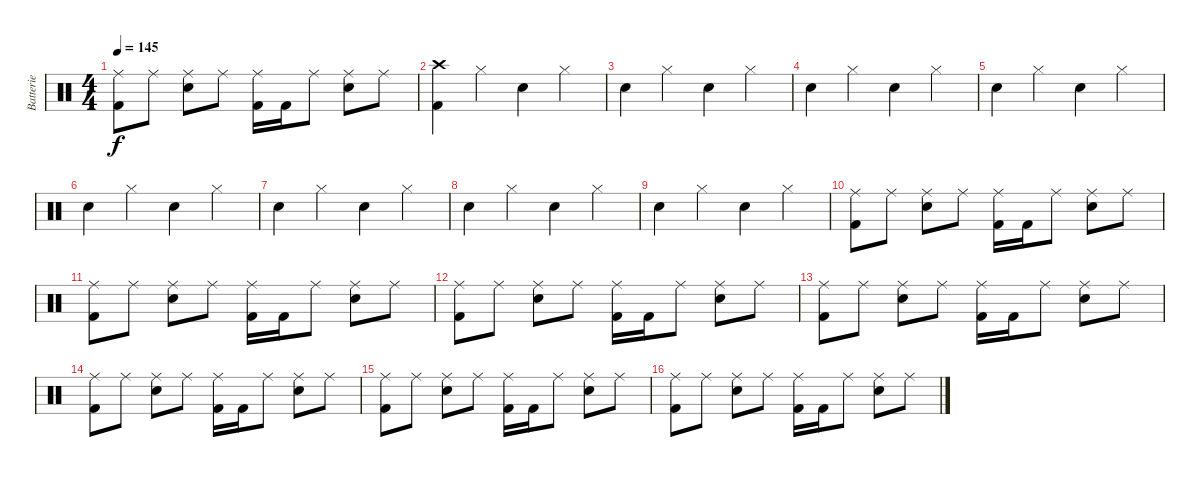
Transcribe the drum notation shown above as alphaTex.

\track ("Batterie" "Batterie") {instrument percussion}
\staff {score}
\articulation defaults
\ts (4 4)
\tempo 145
\clef neutral
\ks c
("Ride (middle)" "Kick (hit) 2").8{dy f} "Ride (middle)".8 ("Ride (middle)" "Snare (hit) 2").8 "Ride (middle)".8 ("Ride (middle)" "Kick (hit) 2").16 "Kick (hit) 2".16 "Ride (middle)".8 ("Ride (middle)" "Snare (hit) 2").8 "Ride (middle)".8 |
\section ("" "")
("Crash high (hit)" "Kick (hit) 2").4 "Hi-Hat (closed)".4 "Snare (hit) 2".4 "Hi-Hat (closed)".4 |
"Snare (hit) 2".4 "Hi-Hat (closed)".4 "Snare (hit) 2".4 "Hi-Hat (closed)".4 |
"Snare (hit) 2".4 "Hi-Hat (closed)".4 "Snare (hit) 2".4 "Hi-Hat (closed)".4 |
"Snare (hit) 2".4 "Hi-Hat (closed)".4 "Snare (hit) 2".4 "Hi-Hat (closed)".4 |
"Snare (hit) 2".4 "Hi-Hat (closed)".4 "Snare (hit) 2".4 "Hi-Hat (closed)".4 |
"Snare (hit) 2".4 "Hi-Hat (closed)".4 "Snare (hit) 2".4 "Hi-Hat (closed)".4 |
"Snare (hit) 2".4 "Hi-Hat (closed)".4 "Snare (hit) 2".4 "Hi-Hat (closed)".4 |
"Snare (hit) 2".4 "Hi-Hat (closed)".4 "Snare (hit) 2".4 "Hi-Hat (closed)".4 |
\section ("" "")
("Ride (middle)" "Kick (hit) 2").8 "Ride (middle)".8 ("Ride (middle)" "Snare (hit) 2").8 "Ride (middle)".8 ("Ride (middle)" "Kick (hit) 2").16 "Kick (hit) 2".16 "Ride (middle)".8 ("Ride (middle)" "Snare (hit) 2").8 "Ride (middle)".8 |
("Ride (middle)" "Kick (hit) 2").8 "Ride (middle)".8 ("Ride (middle)" "Snare (hit) 2").8 "Ride (middle)".8 ("Ride (middle)" "Kick (hit) 2").16 "Kick (hit) 2".16 "Ride (middle)".8 ("Ride (middle)" "Snare (hit) 2").8 "Ride (middle)".8 |
("Ride (middle)" "Kick (hit) 2").8 "Ride (middle)".8 ("Ride (middle)" "Snare (hit) 2").8 "Ride (middle)".8 ("Ride (middle)" "Kick (hit) 2").16 "Kick (hit) 2".16 "Ride (middle)".8 ("Ride (middle)" "Snare (hit) 2").8 "Ride (middle)".8 |
("Ride (middle)" "Kick (hit) 2").8 "Ride (middle)".8 ("Ride (middle)" "Snare (hit) 2").8 "Ride (middle)".8 ("Ride (middle)" "Kick (hit) 2").16 "Kick (hit) 2".16 "Ride (middle)".8 ("Ride (middle)" "Snare (hit) 2").8 "Ride (middle)".8 |
("Ride (middle)" "Kick (hit) 2").8 "Ride (middle)".8 ("Ride (middle)" "Snare (hit) 2").8 "Ride (middle)".8 ("Ride (middle)" "Kick (hit) 2").16 "Kick (hit) 2".16 "Ride (middle)".8 ("Ride (middle)" "Snare (hit) 2").8 "Ride (middle)".8 |
("Ride (middle)" "Kick (hit) 2").8 "Ride (middle)".8 ("Ride (middle)" "Snare (hit) 2").8 "Ride (middle)".8 ("Ride (middle)" "Kick (hit) 2").16 "Kick (hit) 2".16 "Ride (middle)".8 ("Ride (middle)" "Snare (hit) 2").8 "Ride (middle)".8 |
("Ride (middle)" "Kick (hit) 2").8 "Ride (middle)".8 ("Ride (middle)" "Snare (hit) 2").8 "Ride (middle)".8 ("Ride (middle)" "Kick (hit) 2").16 "Kick (hit) 2".16 "Ride (middle)".8 ("Ride (middle)" "Snare (hit) 2").8 "Ride (middle)".8
